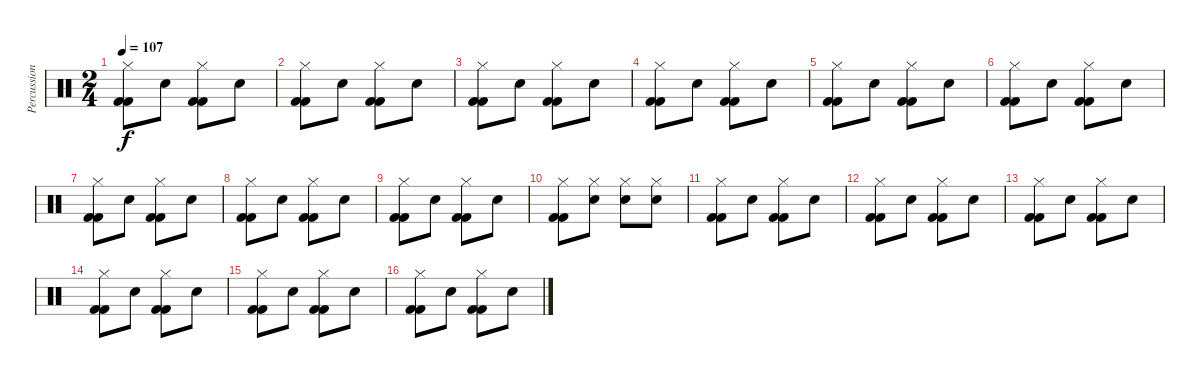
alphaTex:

\track ("Percussioni" "Percussion") {instrument percussion}
\staff {score}
\articulation defaults
\ts (2 4)
\tempo 107
\clef neutral
\ks c
("Hi-Hat (closed)" "Kick (hit) 2" "Kick (hit) 2").8{dy f} "Electric Snare (hit)".8 ("Hi-Hat (closed)" "Kick (hit) 2" "Kick (hit) 2").8 "Electric Snare (hit)".8 |
("Hi-Hat (closed)" "Kick (hit) 2" "Kick (hit) 2").8 "Electric Snare (hit)".8 ("Hi-Hat (closed)" "Kick (hit) 2" "Kick (hit) 2").8 "Electric Snare (hit)".8 |
("Hi-Hat (closed)" "Kick (hit) 2" "Kick (hit) 2").8 "Electric Snare (hit)".8 ("Hi-Hat (closed)" "Kick (hit) 2" "Kick (hit) 2").8 "Electric Snare (hit)".8 |
("Hi-Hat (closed)" "Kick (hit) 2" "Kick (hit) 2").8 "Electric Snare (hit)".8 ("Hi-Hat (closed)" "Kick (hit) 2" "Kick (hit) 2").8 "Electric Snare (hit)".8 |
("Hi-Hat (closed)" "Kick (hit) 2" "Kick (hit) 2").8 "Electric Snare (hit)".8 ("Hi-Hat (closed)" "Kick (hit) 2" "Kick (hit) 2").8 "Electric Snare (hit)".8 |
("Hi-Hat (closed)" "Kick (hit) 2" "Kick (hit) 2").8 "Electric Snare (hit)".8 ("Hi-Hat (closed)" "Kick (hit) 2" "Kick (hit) 2").8 "Electric Snare (hit)".8 |
("Hi-Hat (closed)" "Kick (hit) 2" "Kick (hit) 2").8 "Electric Snare (hit)".8 ("Hi-Hat (closed)" "Kick (hit) 2" "Kick (hit) 2").8 "Electric Snare (hit)".8 |
("Hi-Hat (closed)" "Kick (hit) 2" "Kick (hit) 2").8 "Electric Snare (hit)".8 ("Hi-Hat (closed)" "Kick (hit) 2" "Kick (hit) 2").8 "Electric Snare (hit)".8 |
("Hi-Hat (closed)" "Kick (hit) 2" "Kick (hit) 2").8 "Electric Snare (hit)".8 ("Hi-Hat (closed)" "Kick (hit) 2" "Kick (hit) 2").8 "Electric Snare (hit)".8 |
("Hi-Hat (closed)" "Kick (hit) 2" "Kick (hit) 2").8 ("Hi-Hat (closed)" "Electric Snare (hit)").8 ("Hi-Hat (closed)" "Electric Snare (hit)").8 ("Hi-Hat (closed)" "Electric Snare (hit)").8 |
("Hi-Hat (closed)" "Kick (hit) 2" "Kick (hit) 2").8 "Electric Snare (hit)".8 ("Hi-Hat (closed)" "Kick (hit) 2" "Kick (hit) 2").8 "Electric Snare (hit)".8 |
("Hi-Hat (closed)" "Kick (hit) 2" "Kick (hit) 2").8 "Electric Snare (hit)".8 ("Hi-Hat (closed)" "Kick (hit) 2" "Kick (hit) 2").8 "Electric Snare (hit)".8 |
("Hi-Hat (closed)" "Kick (hit) 2" "Kick (hit) 2").8 "Electric Snare (hit)".8 ("Hi-Hat (closed)" "Kick (hit) 2" "Kick (hit) 2").8 "Electric Snare (hit)".8 |
("Hi-Hat (closed)" "Kick (hit) 2" "Kick (hit) 2").8 "Electric Snare (hit)".8 ("Hi-Hat (closed)" "Kick (hit) 2" "Kick (hit) 2").8 "Electric Snare (hit)".8 |
("Hi-Hat (closed)" "Kick (hit) 2" "Kick (hit) 2").8 "Electric Snare (hit)".8 ("Hi-Hat (closed)" "Kick (hit) 2" "Kick (hit) 2").8 "Electric Snare (hit)".8 |
("Hi-Hat (closed)" "Kick (hit) 2" "Kick (hit) 2").8 "Electric Snare (hit)".8 ("Hi-Hat (closed)" "Kick (hit) 2" "Kick (hit) 2").8 "Electric Snare (hit)".8
